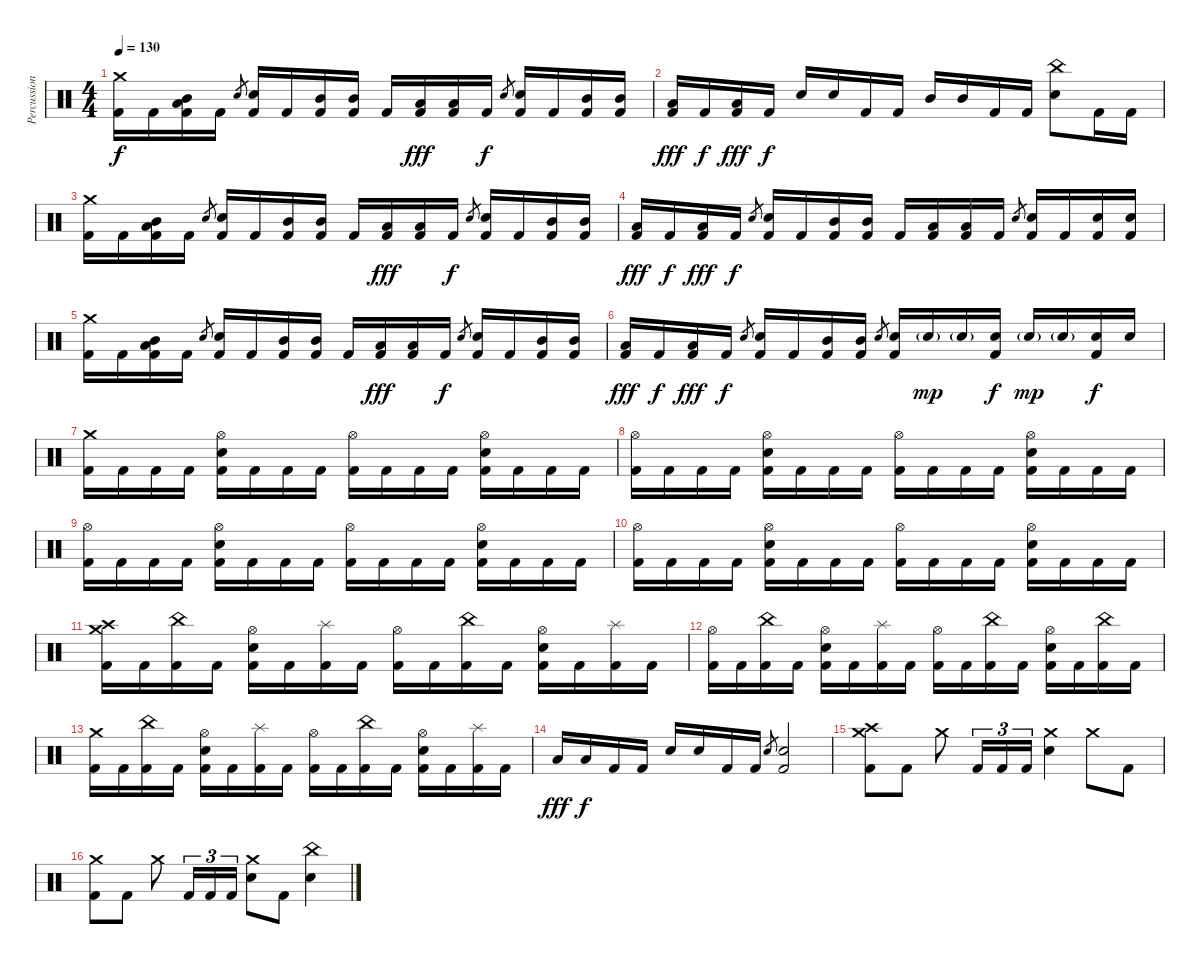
\track ("Percussion" "Percussion") {instrument percussion}
\staff {score}
\articulation defaults
\ts (4 4)
\tempo 130
\clef neutral
\ks c
("Crash medium (hit)" "Kick (hit) 2").16{dy f} "Kick (hit) 2".16 ("Mid Tom (hit)" "Low Tom (hit)" "Kick (hit) 2").16 "Kick (hit) 2".16 "Electric Snare (hit)".8{gr} ("Electric Snare (hit)" "Kick (hit) 2").16 "Kick (hit) 2".16 ("Mid Tom (hit)" "Kick (hit) 2").16 ("Mid Tom (hit)" "Kick (hit) 2").16 "Kick (hit) 2".16 ("Low Tom (hit)" "Kick (hit) 2").16{dy fff} ("Low Tom (hit)" "Kick (hit) 2").16 "Kick (hit) 2".16{dy f} "Electric Snare (hit)".8{gr} ("Electric Snare (hit)" "Kick (hit) 2").16 "Kick (hit) 2".16 ("Mid Tom (hit)" "Kick (hit) 2").16 ("Mid Tom (hit)" "Kick (hit) 2").16 |
("Low Tom (hit)" "Kick (hit) 2").16{dy fff} "Kick (hit) 2".16{dy f} ("Low Tom (hit)" "Kick (hit) 2").16{dy fff} "Kick (hit) 2".16{dy f} "Electric Snare (hit)".16 "Electric Snare (hit)".16 "Kick (hit) 2".16 "Kick (hit) 2".16 "Mid Tom (hit)".16 "Mid Tom (hit)".16 "Kick (hit) 2".16 "Kick (hit) 2".16 ("China (hit)" "Electric Snare (hit)").8 "Kick (hit) 2".16 "Kick (hit) 2".16 |
("Crash medium (hit)" "Kick (hit) 2").16 "Kick (hit) 2".16 ("Mid Tom (hit)" "Low Tom (hit)" "Kick (hit) 2").16 "Kick (hit) 2".16 "Electric Snare (hit)".8{gr} ("Electric Snare (hit)" "Kick (hit) 2").16 "Kick (hit) 2".16 ("Mid Tom (hit)" "Kick (hit) 2").16 ("Mid Tom (hit)" "Kick (hit) 2").16 "Kick (hit) 2".16 ("Low Tom (hit)" "Kick (hit) 2").16{dy fff} ("Low Tom (hit)" "Kick (hit) 2").16 "Kick (hit) 2".16{dy f} "Electric Snare (hit)".8{gr} ("Electric Snare (hit)" "Kick (hit) 2").16 "Kick (hit) 2".16 ("Mid Tom (hit)" "Kick (hit) 2").16 ("Mid Tom (hit)" "Kick (hit) 2").16 |
("Low Tom (hit)" "Kick (hit) 2").16{dy fff} "Kick (hit) 2".16{dy f} ("Low Tom (hit)" "Kick (hit) 2").16{dy fff} "Kick (hit) 2".16{dy f} "Electric Snare (hit)".8{gr} ("Electric Snare (hit)" "Kick (hit) 2").16 "Kick (hit) 2".16 ("Mid Tom (hit)" "Kick (hit) 2").16 ("Mid Tom (hit)" "Kick (hit) 2").16 "Kick (hit) 2".16 ("Low Tom (hit)" "Kick (hit) 2").16 ("Low Tom (hit)" "Kick (hit) 2").16 "Kick (hit) 2".16 "Electric Snare (hit)".8{gr} ("Electric Snare (hit)" "Kick (hit) 2").16 "Kick (hit) 2".16 ("Electric Snare (hit)" "Kick (hit) 2").16 ("Electric Snare (hit)" "Kick (hit) 2").16 |
("Crash medium (hit)" "Kick (hit) 2").16 "Kick (hit) 2".16 ("Mid Tom (hit)" "Low Tom (hit)" "Kick (hit) 2").16 "Kick (hit) 2".16 "Electric Snare (hit)".8{gr} ("Electric Snare (hit)" "Kick (hit) 2").16 "Kick (hit) 2".16 ("Mid Tom (hit)" "Kick (hit) 2").16 ("Mid Tom (hit)" "Kick (hit) 2").16 "Kick (hit) 2".16 ("Low Tom (hit)" "Kick (hit) 2").16{dy fff} ("Low Tom (hit)" "Kick (hit) 2").16 "Kick (hit) 2".16{dy f} "Electric Snare (hit)".8{gr} ("Electric Snare (hit)" "Kick (hit) 2").16 "Kick (hit) 2".16 ("Mid Tom (hit)" "Kick (hit) 2").16 ("Mid Tom (hit)" "Kick (hit) 2").16 |
("Low Tom (hit)" "Kick (hit) 2").16{dy fff} "Kick (hit) 2".16{dy f} ("Low Tom (hit)" "Kick (hit) 2").16{dy fff} "Kick (hit) 2".16{dy f} "Electric Snare (hit)".8{gr} ("Electric Snare (hit)" "Kick (hit) 2").16 "Kick (hit) 2".16 ("Mid Tom (hit)" "Kick (hit) 2").16 ("Mid Tom (hit)" "Kick (hit) 2").16 "Electric Snare (hit)".8{gr} ("Electric Snare (hit)" "Kick (hit) 2").16 "Electric Snare (hit)"{g}.16{dy mp} "Electric Snare (hit)"{g}.16 ("Electric Snare (hit)" "Kick (hit) 2").16{dy f} "Electric Snare (hit)"{g}.16{dy mp} "Electric Snare (hit)"{g}.16 ("Electric Snare (hit)" "Kick (hit) 2").16{dy f} "Electric Snare (hit)".16 |
("Crash medium (hit)" "Kick (hit) 2").16 "Kick (hit) 2".16 "Kick (hit) 2".16 "Kick (hit) 2".16 ("Hi-Hat (open)" "Electric Snare (hit)" "Kick (hit) 2").16 "Kick (hit) 2".16 "Kick (hit) 2".16 "Kick (hit) 2".16 ("Hi-Hat (open)" "Kick (hit) 2").16 "Kick (hit) 2".16 "Kick (hit) 2".16 "Kick (hit) 2".16 ("Hi-Hat (open)" "Electric Snare (hit)" "Kick (hit) 2").16 "Kick (hit) 2".16 "Kick (hit) 2".16 "Kick (hit) 2".16 |
("Hi-Hat (open)" "Kick (hit) 2").16 "Kick (hit) 2".16 "Kick (hit) 2".16 "Kick (hit) 2".16 ("Hi-Hat (open)" "Electric Snare (hit)" "Kick (hit) 2").16 "Kick (hit) 2".16 "Kick (hit) 2".16 "Kick (hit) 2".16 ("Hi-Hat (open)" "Kick (hit) 2").16 "Kick (hit) 2".16 "Kick (hit) 2".16 "Kick (hit) 2".16 ("Hi-Hat (open)" "Electric Snare (hit)" "Kick (hit) 2").16 "Kick (hit) 2".16 "Kick (hit) 2".16 "Kick (hit) 2".16 |
("Hi-Hat (open)" "Kick (hit) 2").16 "Kick (hit) 2".16 "Kick (hit) 2".16 "Kick (hit) 2".16 ("Hi-Hat (open)" "Electric Snare (hit)" "Kick (hit) 2").16 "Kick (hit) 2".16 "Kick (hit) 2".16 "Kick (hit) 2".16 ("Hi-Hat (open)" "Kick (hit) 2").16 "Kick (hit) 2".16 "Kick (hit) 2".16 "Kick (hit) 2".16 ("Hi-Hat (open)" "Electric Snare (hit)" "Kick (hit) 2").16 "Kick (hit) 2".16 "Kick (hit) 2".16 "Kick (hit) 2".16 |
("Hi-Hat (open)" "Kick (hit) 2").16 "Kick (hit) 2".16 "Kick (hit) 2".16 "Kick (hit) 2".16 ("Hi-Hat (open)" "Electric Snare (hit)" "Kick (hit) 2").16 "Kick (hit) 2".16 "Kick (hit) 2".16 "Kick (hit) 2".16 ("Hi-Hat (open)" "Kick (hit) 2").16 "Kick (hit) 2".16 "Kick (hit) 2".16 "Kick (hit) 2".16 ("Hi-Hat (open)" "Electric Snare (hit)" "Kick (hit) 2").16 "Kick (hit) 2".16 "Kick (hit) 2".16 "Kick (hit) 2".16 |
("Crash medium (hit)" "Crash high (hit)" "Kick (hit) 2").16 "Kick (hit) 2".16 ("China (hit)" "Kick (hit) 2").16 "Kick (hit) 2".16 ("Hi-Hat (open)" "Electric Snare (hit)" "Kick (hit) 2").16 "Kick (hit) 2".16 ("Splash (hit)" "Kick (hit) 2").16 "Kick (hit) 2".16 ("Hi-Hat (open)" "Kick (hit) 2").16 "Kick (hit) 2".16 ("China (hit)" "Kick (hit) 2").16 "Kick (hit) 2".16 ("Hi-Hat (open)" "Electric Snare (hit)" "Kick (hit) 2").16 "Kick (hit) 2".16 ("Splash (hit)" "Kick (hit) 2").16 "Kick (hit) 2".16 |
("Hi-Hat (open)" "Kick (hit) 2").16 "Kick (hit) 2".16 ("China (hit)" "Kick (hit) 2").16 "Kick (hit) 2".16 ("Hi-Hat (open)" "Electric Snare (hit)" "Kick (hit) 2").16 "Kick (hit) 2".16 ("Splash (hit)" "Kick (hit) 2").16 "Kick (hit) 2".16 ("Hi-Hat (open)" "Kick (hit) 2").16 "Kick (hit) 2".16 ("China (hit)" "Kick (hit) 2").16 "Kick (hit) 2".16 ("Hi-Hat (open)" "Electric Snare (hit)" "Kick (hit) 2").16 "Kick (hit) 2".16 ("China (hit)" "Kick (hit) 2").16 "Kick (hit) 2".16 |
("Crash medium (hit)" "Kick (hit) 2").16 "Kick (hit) 2".16 ("China (hit)" "Kick (hit) 2").16 "Kick (hit) 2".16 ("Hi-Hat (open)" "Electric Snare (hit)" "Kick (hit) 2").16 "Kick (hit) 2".16 ("Splash (hit)" "Kick (hit) 2").16 "Kick (hit) 2".16 ("Hi-Hat (open)" "Kick (hit) 2").16 "Kick (hit) 2".16 ("China (hit)" "Kick (hit) 2").16 "Kick (hit) 2".16 ("Hi-Hat (open)" "Electric Snare (hit)" "Kick (hit) 2").16 "Kick (hit) 2".16 ("Splash (hit)" "Kick (hit) 2").16 "Kick (hit) 2".16 |
"Low Tom (hit)".16{dy fff} "Low Tom (hit)".16{dy f} "Kick (hit) 2".16 "Kick (hit) 2".16 "Electric Snare (hit)".16 "Electric Snare (hit)".16 "Kick (hit) 2".16 "Kick (hit) 2".16 "Electric Snare (hit)".8{gr} ("Electric Snare (hit)" "Kick (hit) 2").2 |
("Crash medium (hit)" "Crash high (hit)" "Kick (hit) 2").8 "Kick (hit) 2".8 "Crash medium (hit)".8 "Kick (hit) 2".16{tu (3 2)} "Kick (hit) 2".16{tu (3 2)} "Kick (hit) 2".16{tu (3 2)} ("Crash medium (hit)" "Electric Snare (hit)").4 "Crash medium (hit)".8 "Kick (hit) 2".8 |
("Crash medium (hit)" "Kick (hit) 2").8 "Kick (hit) 2".8 "Crash medium (hit)".8 "Kick (hit) 2".16{tu (3 2)} "Kick (hit) 2".16{tu (3 2)} "Kick (hit) 2".16{tu (3 2)} ("Crash medium (hit)" "Electric Snare (hit)").8 "Kick (hit) 2".8 ("China (hit)" "Electric Snare (hit)").4
